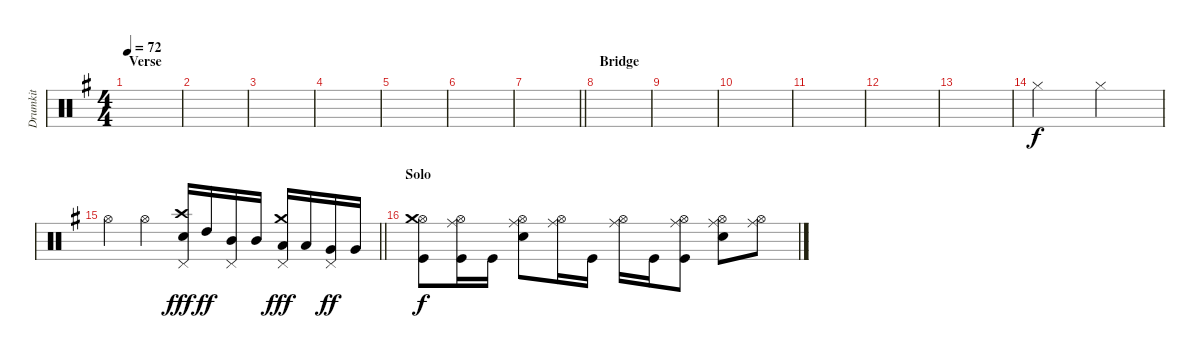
\track ("Drumkit" "Drumkit") {instrument percussion}
\staff {score}
\articulation defaults
\ts (4 4)
\section ("" "Verse")
\tempo 72
\clef neutral
\ks g
|
|
|
|
|
|
\barLineRight lightlight
|
\section ("" "Bridge")
|
|
|
|
|
|
"Hi-Hat (closed)".2 "Hi-Hat (closed)".2 |
\barLineRight lightlight "Hi-Hat (open)".4 "Hi-Hat (open)".4
("Pedal Hi-Hat (hit)" "Crash high (hit)" "Snare (hit) 2").16{dy fff} "High Tom (hit)".16{dy ff} ("Pedal Hi-Hat (hit)" "Mid Tom (hit)").16 "Mid Tom (hit)".16 ("Pedal Hi-Hat (hit)" "Crash medium (hit)" "Low Tom (hit)").16{dy fff} "Low Tom (hit)".16 ("Pedal Hi-Hat (hit)" "Very Low Tom (hit)").16{dy ff} "Very Low Tom (hit)".16 |
\section ("" "Solo")
("Hi-Hat (open)" "Crash medium (hit)" "Kick (hit)").8{dy f} ("Hi-Hat (open)" "Ride (middle)" "Kick (hit)").16 "Kick (hit)".16 ("Hi-Hat (open)" "Ride (middle)" "Snare (hit) 2").8 ("Hi-Hat (open)" "Ride (middle)").16 "Kick (hit)".16 ("Hi-Hat (open)" "Ride (middle)").16 "Kick (hit)".16 ("Hi-Hat (open)" "Ride (middle)" "Kick (hit)").8 ("Hi-Hat (open)" "Ride (middle)" "Snare (hit) 2").8 ("Hi-Hat (open)" "Ride (middle)").8
